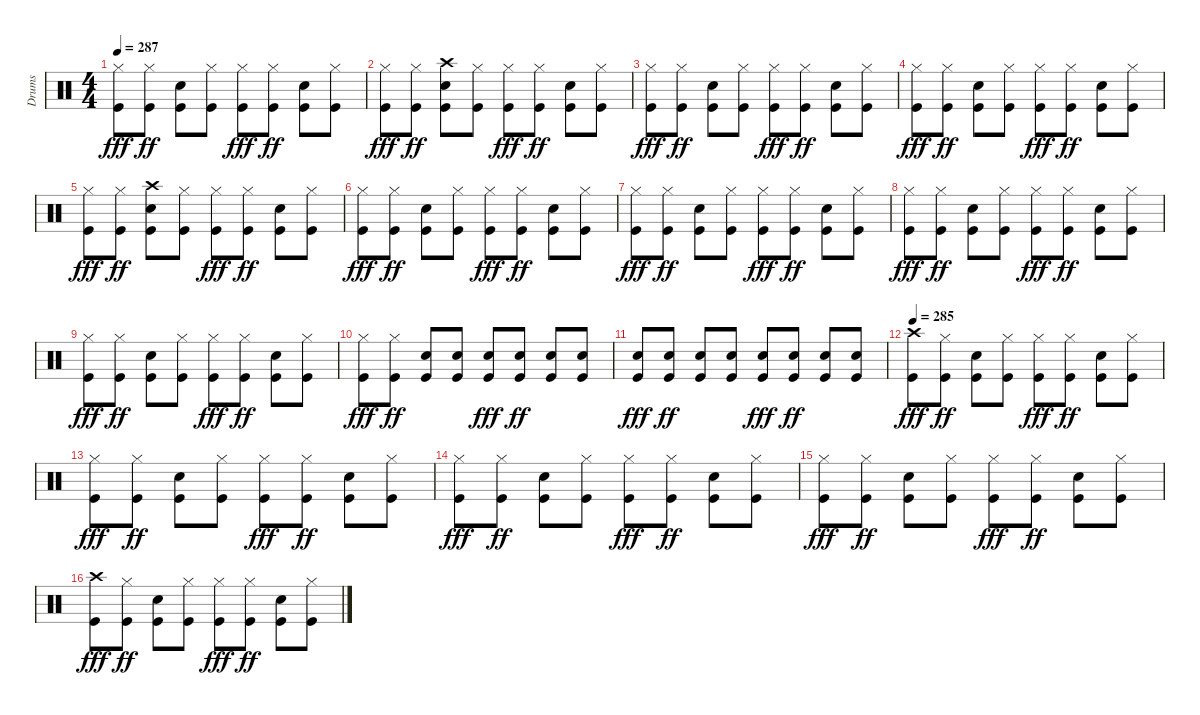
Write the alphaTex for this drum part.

\track ("Drums" "Drums") {instrument percussion}
\staff {score}
\articulation defaults
\ts (4 4)
\tempo 287
\clef neutral
\ks c
("Hi-Hat (closed)" "Kick (hit)").8{dy fff} ("Hi-Hat (closed)" "Kick (hit)").8{dy ff} ("Snare (hit) 2" "Kick (hit)").8 ("Hi-Hat (closed)" "Kick (hit)").8 ("Hi-Hat (closed)" "Kick (hit)").8{dy fff} ("Hi-Hat (closed)" "Kick (hit)").8{dy ff} ("Snare (hit) 2" "Kick (hit)").8 ("Hi-Hat (closed)" "Kick (hit)").8 |
("Hi-Hat (closed)" "Kick (hit)").8{dy fff} ("Hi-Hat (closed)" "Kick (hit)").8{dy ff} ("Crash high (hit)" "Snare (hit) 2" "Kick (hit)").8 ("Hi-Hat (closed)" "Kick (hit)").8 ("Hi-Hat (closed)" "Kick (hit)").8{dy fff} ("Hi-Hat (closed)" "Kick (hit)").8{dy ff} ("Snare (hit) 2" "Kick (hit)").8 ("Hi-Hat (closed)" "Kick (hit)").8 |
("Hi-Hat (closed)" "Kick (hit)").8{dy fff} ("Hi-Hat (closed)" "Kick (hit)").8{dy ff} ("Snare (hit) 2" "Kick (hit)").8 ("Hi-Hat (closed)" "Kick (hit)").8 ("Hi-Hat (closed)" "Kick (hit)").8{dy fff} ("Hi-Hat (closed)" "Kick (hit)").8{dy ff} ("Snare (hit) 2" "Kick (hit)").8 ("Hi-Hat (closed)" "Kick (hit)").8 |
("Hi-Hat (closed)" "Kick (hit)").8{dy fff} ("Hi-Hat (closed)" "Kick (hit)").8{dy ff} ("Snare (hit) 2" "Kick (hit)").8 ("Hi-Hat (closed)" "Kick (hit)").8 ("Hi-Hat (closed)" "Kick (hit)").8{dy fff} ("Hi-Hat (closed)" "Kick (hit)").8{dy ff} ("Snare (hit) 2" "Kick (hit)").8 ("Hi-Hat (closed)" "Kick (hit)").8 |
("Hi-Hat (closed)" "Kick (hit)").8{dy fff} ("Hi-Hat (closed)" "Kick (hit)").8{dy ff} ("Crash high (hit)" "Snare (hit) 2" "Kick (hit)").8 ("Hi-Hat (closed)" "Kick (hit)").8 ("Hi-Hat (closed)" "Kick (hit)").8{dy fff} ("Hi-Hat (closed)" "Kick (hit)").8{dy ff} ("Snare (hit) 2" "Kick (hit)").8 ("Hi-Hat (closed)" "Kick (hit)").8 |
("Hi-Hat (closed)" "Kick (hit)").8{dy fff} ("Hi-Hat (closed)" "Kick (hit)").8{dy ff} ("Snare (hit) 2" "Kick (hit)").8 ("Hi-Hat (closed)" "Kick (hit)").8 ("Hi-Hat (closed)" "Kick (hit)").8{dy fff} ("Hi-Hat (closed)" "Kick (hit)").8{dy ff} ("Snare (hit) 2" "Kick (hit)").8 ("Hi-Hat (closed)" "Kick (hit)").8 |
("Hi-Hat (closed)" "Kick (hit)").8{dy fff} ("Hi-Hat (closed)" "Kick (hit)").8{dy ff} ("Snare (hit) 2" "Kick (hit)").8 ("Hi-Hat (closed)" "Kick (hit)").8 ("Hi-Hat (closed)" "Kick (hit)").8{dy fff} ("Hi-Hat (closed)" "Kick (hit)").8{dy ff} ("Snare (hit) 2" "Kick (hit)").8 ("Hi-Hat (closed)" "Kick (hit)").8 |
("Hi-Hat (closed)" "Kick (hit)").8{dy fff} ("Hi-Hat (closed)" "Kick (hit)").8{dy ff} ("Snare (hit) 2" "Kick (hit)").8 ("Hi-Hat (closed)" "Kick (hit)").8 ("Hi-Hat (closed)" "Kick (hit)").8{dy fff} ("Hi-Hat (closed)" "Kick (hit)").8{dy ff} ("Snare (hit) 2" "Kick (hit)").8 ("Hi-Hat (closed)" "Kick (hit)").8 |
("Hi-Hat (closed)" "Kick (hit)").8{dy fff} ("Hi-Hat (closed)" "Kick (hit)").8{dy ff} ("Snare (hit) 2" "Kick (hit)").8 ("Hi-Hat (closed)" "Kick (hit)").8 ("Hi-Hat (closed)" "Kick (hit)").8{dy fff} ("Hi-Hat (closed)" "Kick (hit)").8{dy ff} ("Snare (hit) 2" "Kick (hit)").8 ("Hi-Hat (closed)" "Kick (hit)").8 |
("Hi-Hat (closed)" "Kick (hit)").8{dy fff} ("Hi-Hat (closed)" "Kick (hit)").8{dy ff} ("Snare (hit) 2" "Kick (hit)").8{volume 8} ("Snare (hit) 2" "Kick (hit)").8{volume 14} ("Snare (hit) 2" "Kick (hit)").8{dy fff} ("Snare (hit) 2" "Kick (hit)").8{dy ff} ("Snare (hit) 2" "Kick (hit)").8 ("Snare (hit) 2" "Kick (hit)").8 |
("Snare (hit) 2" "Kick (hit)").8{dy fff} ("Snare (hit) 2" "Kick (hit)").8{dy ff} ("Snare (hit) 2" "Kick (hit)").8 ("Snare (hit) 2" "Kick (hit)").8 ("Snare (hit) 2" "Kick (hit)").8{dy fff} ("Snare (hit) 2" "Kick (hit)").8{dy ff} ("Snare (hit) 2" "Kick (hit)").8 ("Snare (hit) 2" "Kick (hit)").8 |
\tempo 285
("Crash high (hit)" "Kick (hit)").8{dy fff} ("Hi-Hat (closed)" "Kick (hit)").8{dy ff} ("Snare (hit) 2" "Kick (hit)").8 ("Hi-Hat (closed)" "Kick (hit)").8 ("Hi-Hat (closed)" "Kick (hit)").8{dy fff} ("Hi-Hat (closed)" "Kick (hit)").8{dy ff} ("Snare (hit) 2" "Kick (hit)").8 ("Hi-Hat (closed)" "Kick (hit)").8 |
("Hi-Hat (closed)" "Kick (hit)").8{dy fff} ("Hi-Hat (closed)" "Kick (hit)").8{dy ff} ("Snare (hit) 2" "Kick (hit)").8 ("Hi-Hat (closed)" "Kick (hit)").8 ("Hi-Hat (closed)" "Kick (hit)").8{dy fff} ("Hi-Hat (closed)" "Kick (hit)").8{dy ff} ("Snare (hit) 2" "Kick (hit)").8 ("Hi-Hat (closed)" "Kick (hit)").8 |
("Hi-Hat (closed)" "Kick (hit)").8{dy fff} ("Hi-Hat (closed)" "Kick (hit)").8{dy ff} ("Snare (hit) 2" "Kick (hit)").8 ("Hi-Hat (closed)" "Kick (hit)").8 ("Hi-Hat (closed)" "Kick (hit)").8{dy fff} ("Hi-Hat (closed)" "Kick (hit)").8{dy ff} ("Snare (hit) 2" "Kick (hit)").8 ("Hi-Hat (closed)" "Kick (hit)").8 |
("Hi-Hat (closed)" "Kick (hit)").8{dy fff} ("Hi-Hat (closed)" "Kick (hit)").8{dy ff} ("Snare (hit) 2" "Kick (hit)").8 ("Hi-Hat (closed)" "Kick (hit)").8 ("Hi-Hat (closed)" "Kick (hit)").8{dy fff} ("Hi-Hat (closed)" "Kick (hit)").8{dy ff} ("Snare (hit) 2" "Kick (hit)").8 ("Hi-Hat (closed)" "Kick (hit)").8 |
("Crash high (hit)" "Kick (hit)").8{dy fff} ("Hi-Hat (closed)" "Kick (hit)").8{dy ff} ("Snare (hit) 2" "Kick (hit)").8 ("Hi-Hat (closed)" "Kick (hit)").8 ("Hi-Hat (closed)" "Kick (hit)").8{dy fff} ("Hi-Hat (closed)" "Kick (hit)").8{dy ff} ("Snare (hit) 2" "Kick (hit)").8 ("Hi-Hat (closed)" "Kick (hit)").8
